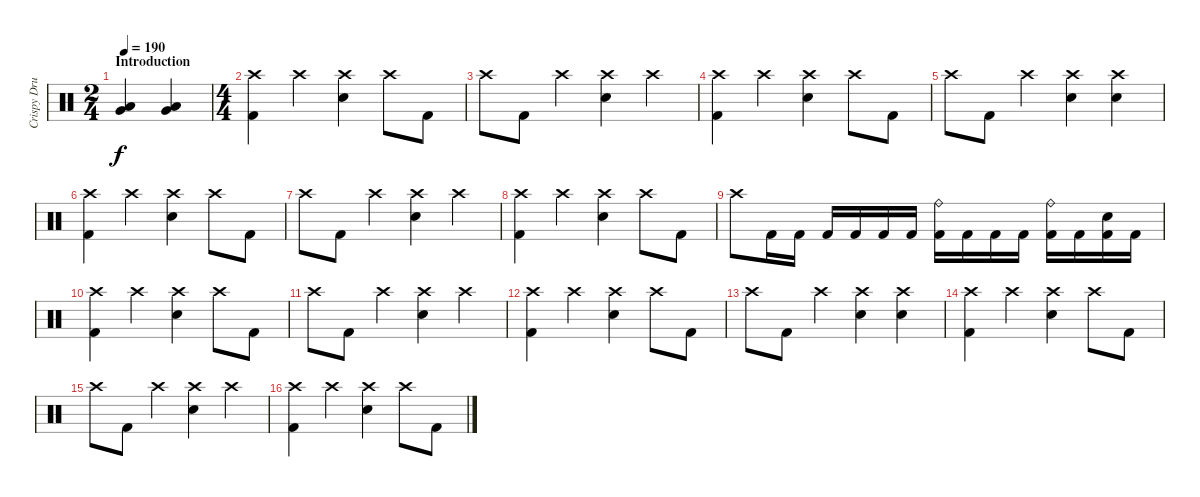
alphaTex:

\track ("Crispy Drums" "Crispy Dru") {instrument percussion}
\staff {score}
\articulation defaults
\ts (2 4)
\section ("" "Introduction")
\tempo 190
\clef neutral
\ks c
("Very Low Tom (hit)" "Low Floor Tom (hit)").4{dy f} ("Very Low Tom (hit)" "Low Floor Tom (hit)").4 |
\ts (4 4)
("Crash high (hit)" "Kick (hit) 2").4 "Crash high (hit)".4 ("Crash high (hit)" "Electric Snare (hit)").4 "Crash high (hit)".8 "Kick (hit) 2".8 |
"Crash high (hit)".8 "Kick (hit) 2".8 "Crash high (hit)".4 ("Crash high (hit)" "Electric Snare (hit)").4 "Crash high (hit)".4 |
("Crash high (hit)" "Kick (hit) 2").4 "Crash high (hit)".4 ("Crash high (hit)" "Electric Snare (hit)").4 "Crash high (hit)".8 "Kick (hit) 2".8 |
"Crash high (hit)".8 "Kick (hit) 2".8 "Crash high (hit)".4 ("Crash high (hit)" "Electric Snare (hit)").4 ("Crash high (hit)" "Electric Snare (hit)").4 |
("Crash high (hit)" "Kick (hit) 2").4 "Crash high (hit)".4 ("Crash high (hit)" "Electric Snare (hit)").4 "Crash high (hit)".8 "Kick (hit) 2".8 |
"Crash high (hit)".8 "Kick (hit) 2".8 "Crash high (hit)".4 ("Crash high (hit)" "Electric Snare (hit)").4 "Crash high (hit)".4 |
("Crash high (hit)" "Kick (hit) 2").4 "Crash high (hit)".4 ("Crash high (hit)" "Electric Snare (hit)").4 "Crash high (hit)".8 "Kick (hit) 2".8 |
"Crash high (hit)".8 "Kick (hit) 2".16 "Kick (hit) 2".16 "Kick (hit) 2".16 "Kick (hit) 2".16 "Kick (hit) 2".16 "Kick (hit) 2".16 ("Ride (bell)" "Kick (hit) 2").16 "Kick (hit) 2".16 "Kick (hit) 2".16 "Kick (hit) 2".16 ("Ride (bell)" "Kick (hit) 2").16 "Kick (hit) 2".16 ("Electric Snare (hit)" "Kick (hit) 2").16 "Kick (hit) 2".16 |
("Crash high (hit)" "Kick (hit) 2").4 "Crash high (hit)".4 ("Crash high (hit)" "Electric Snare (hit)").4 "Crash high (hit)".8 "Kick (hit) 2".8 |
"Crash high (hit)".8 "Kick (hit) 2".8 "Crash high (hit)".4 ("Crash high (hit)" "Electric Snare (hit)").4 "Crash high (hit)".4 |
("Crash high (hit)" "Kick (hit) 2").4 "Crash high (hit)".4 ("Crash high (hit)" "Electric Snare (hit)").4 "Crash high (hit)".8 "Kick (hit) 2".8 |
"Crash high (hit)".8 "Kick (hit) 2".8 "Crash high (hit)".4 ("Crash high (hit)" "Electric Snare (hit)").4 ("Crash high (hit)" "Electric Snare (hit)").4 |
("Crash high (hit)" "Kick (hit) 2").4 "Crash high (hit)".4 ("Crash high (hit)" "Electric Snare (hit)").4 "Crash high (hit)".8 "Kick (hit) 2".8 |
"Crash high (hit)".8 "Kick (hit) 2".8 "Crash high (hit)".4 ("Crash high (hit)" "Electric Snare (hit)").4 "Crash high (hit)".4 |
("Crash high (hit)" "Kick (hit) 2").4 "Crash high (hit)".4 ("Crash high (hit)" "Electric Snare (hit)").4 "Crash high (hit)".8 "Kick (hit) 2".8
